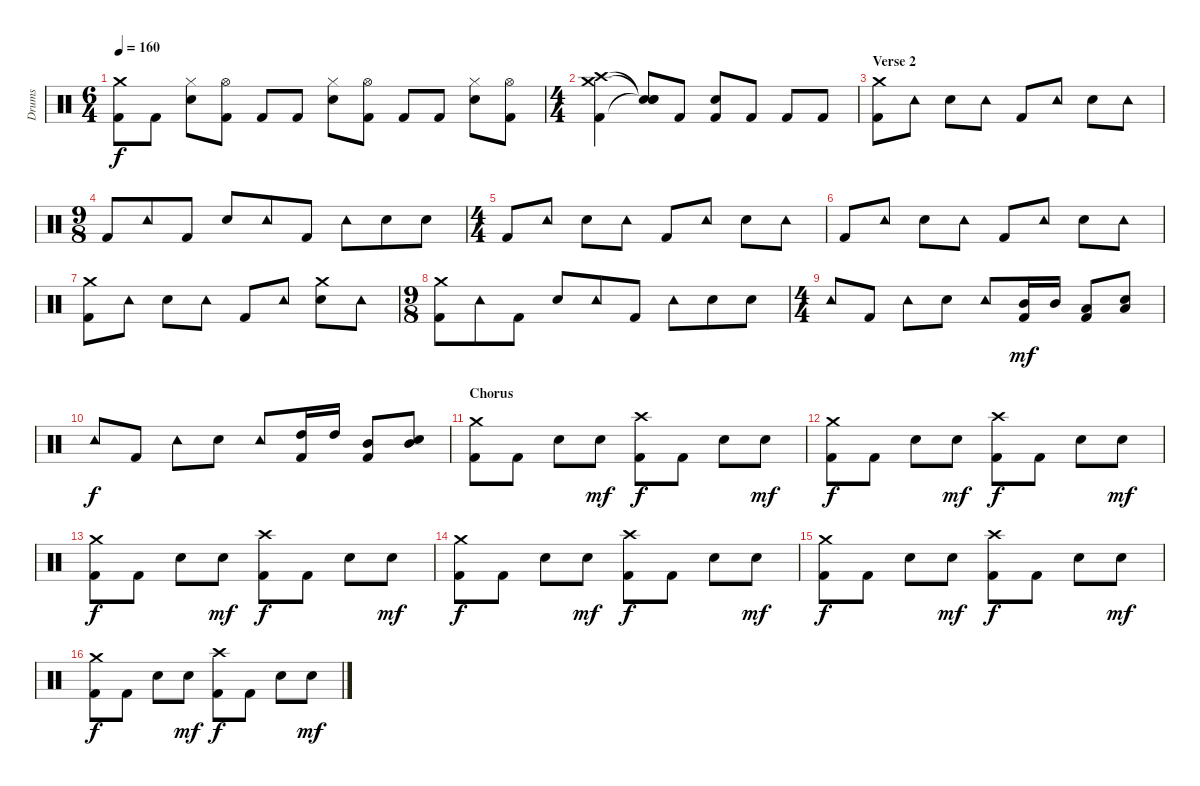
\track ("Drums" "Drums") {instrument percussion}
\staff {score}
\articulation defaults
\ts (6 4)
\tempo 160
\clef neutral
\ks c
("Crash medium (hit)" "Kick (hit) 2").8{dy f} "Kick (hit) 2".8 ("Hi-Hat (closed)" "Snare (hit) 2").8 ("Hi-Hat (open)" "Kick (hit) 2").8 "Kick (hit) 2".8 "Kick (hit) 2".8 ("Hi-Hat (closed)" "Snare (hit) 2").8 ("Hi-Hat (open)" "Kick (hit) 2").8 "Kick (hit) 2".8 "Kick (hit) 2".8 ("Hi-Hat (closed)" "Snare (hit) 2").8 ("Hi-Hat (open)" "Kick (hit) 2").8 |
\ts (4 4)
("Crash medium (hit)" "Crash high (hit)" "Kick (hit) 2").4 ("Snare (hit)"{t} "Snare (hit)"{t} "Snare (hit)"{t}).8 "Kick (hit) 2".8 ("Snare (hit) 2" "Kick (hit) 2").8 "Kick (hit) 2".8 "Kick (hit) 2".8 "Kick (hit) 2".8 |
\section ("" "Verse 2")
("Crash medium (hit)" "Kick (hit) 2").8 "Tambourine (hit)".8 "Snare (hit) 2".8 "Tambourine (hit)".8 "Kick (hit) 2".8 "Tambourine (hit)".8 "Snare (hit) 2".8 "Tambourine (hit)".8 |
\ts (9 8)
"Kick (hit) 2".8 "Tambourine (hit)".8 "Kick (hit) 2".8 "Snare (hit) 2".8 "Tambourine (hit)".8 "Kick (hit) 2".8 "Tambourine (hit)".8 "Snare (hit) 2".8 "Snare (hit) 2".8 |
\ts (4 4)
"Kick (hit) 2".8 "Tambourine (hit)".8 "Snare (hit) 2".8 "Tambourine (hit)".8 "Kick (hit) 2".8 "Tambourine (hit)".8 "Snare (hit) 2".8 "Tambourine (hit)".8 |
"Kick (hit) 2".8 "Tambourine (hit)".8 "Snare (hit) 2".8 "Tambourine (hit)".8 "Kick (hit) 2".8 "Tambourine (hit)".8 "Snare (hit) 2".8 "Tambourine (hit)".8 |
("Crash medium (hit)" "Kick (hit) 2").8 "Tambourine (hit)".8 "Snare (hit) 2".8 "Tambourine (hit)".8 "Kick (hit) 2".8 "Tambourine (hit)".8 ("Crash medium (hit)" "Snare (hit) 2").8 "Tambourine (hit)".8 |
\ts (9 8)
("Crash medium (hit)" "Kick (hit) 2").8 "Tambourine (hit)".8 "Kick (hit) 2".8 "Snare (hit) 2".8 "Tambourine (hit)".8 "Kick (hit) 2".8 "Tambourine (hit)".8 "Snare (hit) 2".8 "Snare (hit) 2".8 |
\ts (4 4)
"Tambourine (hit)".8 "Kick (hit) 2".8 "Tambourine (hit)".8 "Snare (hit) 2".8 "Tambourine (hit)".8 ("Mid Tom (hit)" "Kick (hit) 2").16{dy mf} "Mid Tom (hit)".16 ("Low Tom (hit)" "Kick (hit) 2").8 ("Low Tom (hit)" "Snare (hit) 2").8 |
"Tambourine (hit)".8{dy f} "Kick (hit) 2".8 "Tambourine (hit)".8 "Snare (hit) 2".8 "Tambourine (hit)".8 ("High Tom (hit)" "Kick (hit) 2").16 "High Tom (hit)".16 ("Mid Tom (hit)" "Kick (hit) 2").8 ("Mid Tom (hit)" "Snare (hit) 2").8 |
\section ("" "Chorus")
("Crash medium (hit)" "Kick (hit) 2").8 "Kick (hit) 2".8 "Snare (hit) 2".8 "Snare (hit) 2".8{dy mf} ("Crash high (hit)" "Kick (hit) 2").8{dy f} "Kick (hit) 2".8 "Snare (hit) 2".8 "Snare (hit) 2".8{dy mf} |
("Crash medium (hit)" "Kick (hit) 2").8{dy f} "Kick (hit) 2".8 "Snare (hit) 2".8 "Snare (hit) 2".8{dy mf} ("Crash high (hit)" "Kick (hit) 2").8{dy f} "Kick (hit) 2".8 "Snare (hit) 2".8 "Snare (hit) 2".8{dy mf} |
("Crash medium (hit)" "Kick (hit) 2").8{dy f} "Kick (hit) 2".8 "Snare (hit) 2".8 "Snare (hit) 2".8{dy mf} ("Crash high (hit)" "Kick (hit) 2").8{dy f} "Kick (hit) 2".8 "Snare (hit) 2".8 "Snare (hit) 2".8{dy mf} |
("Crash medium (hit)" "Kick (hit) 2").8{dy f} "Kick (hit) 2".8 "Snare (hit) 2".8 "Snare (hit) 2".8{dy mf} ("Crash high (hit)" "Kick (hit) 2").8{dy f} "Kick (hit) 2".8 "Snare (hit) 2".8 "Snare (hit) 2".8{dy mf} |
("Crash medium (hit)" "Kick (hit) 2").8{dy f} "Kick (hit) 2".8 "Snare (hit) 2".8 "Snare (hit) 2".8{dy mf} ("Crash high (hit)" "Kick (hit) 2").8{dy f} "Kick (hit) 2".8 "Snare (hit) 2".8 "Snare (hit) 2".8{dy mf} |
("Crash medium (hit)" "Kick (hit) 2").8{dy f} "Kick (hit) 2".8 "Snare (hit) 2".8 "Snare (hit) 2".8{dy mf} ("Crash high (hit)" "Kick (hit) 2").8{dy f} "Kick (hit) 2".8 "Snare (hit) 2".8 "Snare (hit) 2".8{dy mf}
